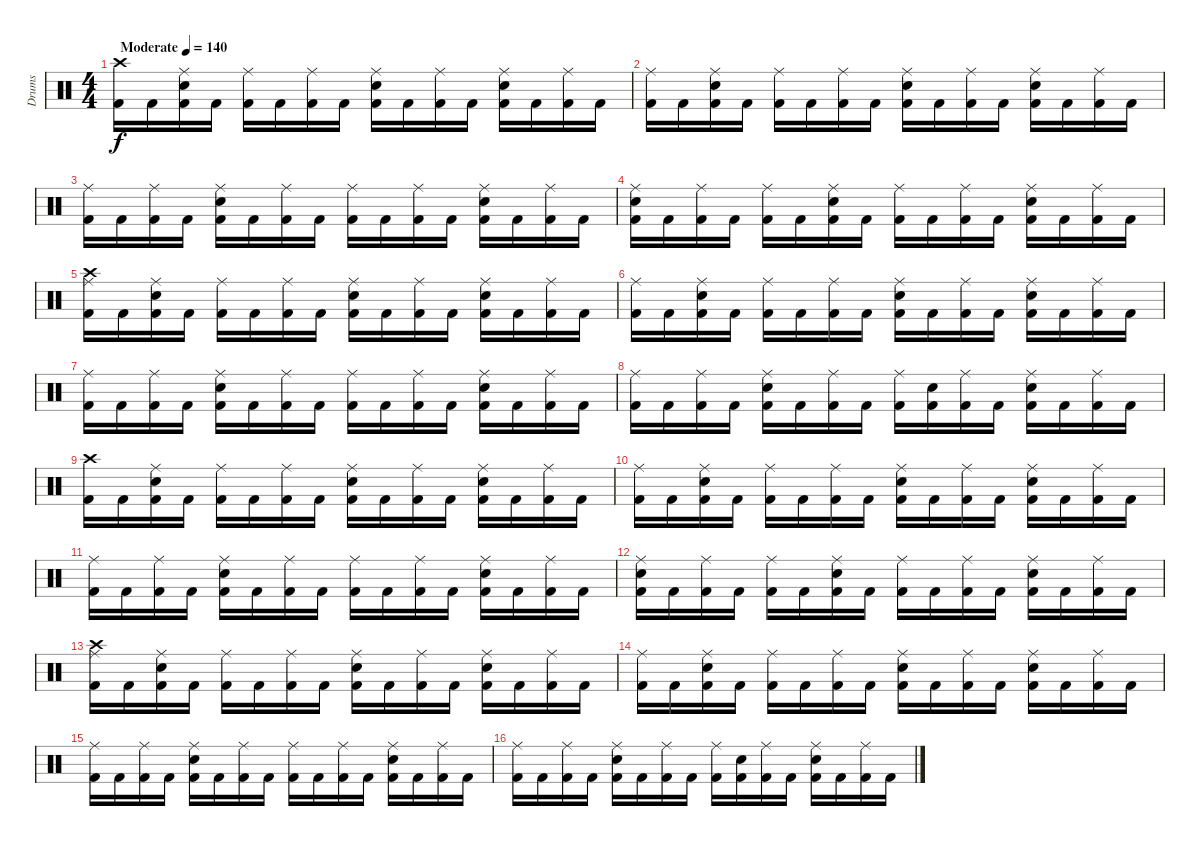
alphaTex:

\track ("Drums" "Drums") {instrument percussion}
\staff {score}
\articulation defaults
\ts (4 4)
\tempo (140 "Moderate")
\clef neutral
\ks c
("Crash high (hit)" "Kick (hit) 2").16{dy f} "Kick (hit) 2".16 ("Ride (middle)" "Electric Snare (hit)" "Kick (hit) 2").16 "Kick (hit) 2".16 ("Ride (middle)" "Kick (hit) 2").16 "Kick (hit) 2".16 ("Ride (middle)" "Kick (hit) 2").16 "Kick (hit) 2".16 ("Ride (middle)" "Electric Snare (hit)" "Kick (hit) 2").16 "Kick (hit) 2".16 ("Ride (middle)" "Kick (hit) 2").16 "Kick (hit) 2".16 ("Ride (middle)" "Electric Snare (hit)" "Kick (hit) 2").16 "Kick (hit) 2".16 ("Ride (middle)" "Kick (hit) 2").16 "Kick (hit) 2".16 |
("Ride (middle)" "Kick (hit) 2").16 "Kick (hit) 2".16 ("Ride (middle)" "Electric Snare (hit)" "Kick (hit) 2").16 "Kick (hit) 2".16 ("Ride (middle)" "Kick (hit) 2").16 "Kick (hit) 2".16 ("Ride (middle)" "Kick (hit) 2").16 "Kick (hit) 2".16 ("Ride (middle)" "Electric Snare (hit)" "Kick (hit) 2").16 "Kick (hit) 2".16 ("Ride (middle)" "Kick (hit) 2").16 "Kick (hit) 2".16 ("Ride (middle)" "Electric Snare (hit)" "Kick (hit) 2").16 "Kick (hit) 2".16 ("Ride (middle)" "Kick (hit) 2").16 "Kick (hit) 2".16 |
("Ride (middle)" "Kick (hit) 2").16 "Kick (hit) 2".16 ("Ride (middle)" "Kick (hit) 2").16 "Kick (hit) 2".16 ("Ride (middle)" "Electric Snare (hit)" "Kick (hit) 2").16 "Kick (hit) 2".16 ("Ride (middle)" "Kick (hit) 2").16 "Kick (hit) 2".16 ("Ride (middle)" "Kick (hit) 2").16 "Kick (hit) 2".16 ("Ride (middle)" "Kick (hit) 2").16 "Kick (hit) 2".16 ("Ride (middle)" "Electric Snare (hit)" "Kick (hit) 2").16 "Kick (hit) 2".16 ("Ride (middle)" "Kick (hit) 2").16 "Kick (hit) 2".16 |
("Ride (middle)" "Electric Snare (hit)" "Kick (hit) 2").16 "Kick (hit) 2".16 ("Ride (middle)" "Kick (hit) 2").16 "Kick (hit) 2".16 ("Ride (middle)" "Kick (hit) 2").16 "Kick (hit) 2".16 ("Ride (middle)" "Electric Snare (hit)" "Kick (hit) 2").16 "Kick (hit) 2".16 ("Ride (middle)" "Kick (hit) 2").16 "Kick (hit) 2".16 ("Ride (middle)" "Kick (hit) 2").16 "Kick (hit) 2".16 ("Ride (middle)" "Electric Snare (hit)" "Kick (hit) 2").16 "Kick (hit) 2".16 ("Ride (middle)" "Kick (hit) 2").16 "Kick (hit) 2".16 |
("Ride (middle)" "Crash high (hit)" "Kick (hit) 2").16 "Kick (hit) 2".16 ("Ride (middle)" "Electric Snare (hit)" "Kick (hit) 2").16 "Kick (hit) 2".16 ("Ride (middle)" "Kick (hit) 2").16 "Kick (hit) 2".16 ("Ride (middle)" "Kick (hit) 2").16 "Kick (hit) 2".16 ("Ride (middle)" "Electric Snare (hit)" "Kick (hit) 2").16 "Kick (hit) 2".16 ("Ride (middle)" "Kick (hit) 2").16 "Kick (hit) 2".16 ("Ride (middle)" "Electric Snare (hit)" "Kick (hit) 2").16 "Kick (hit) 2".16 ("Ride (middle)" "Kick (hit) 2").16 "Kick (hit) 2".16 |
("Ride (middle)" "Kick (hit) 2").16 "Kick (hit) 2".16 ("Ride (middle)" "Electric Snare (hit)" "Kick (hit) 2").16 "Kick (hit) 2".16 ("Ride (middle)" "Kick (hit) 2").16 "Kick (hit) 2".16 ("Ride (middle)" "Kick (hit) 2").16 "Kick (hit) 2".16 ("Ride (middle)" "Electric Snare (hit)" "Kick (hit) 2").16 "Kick (hit) 2".16 ("Ride (middle)" "Kick (hit) 2").16 "Kick (hit) 2".16 ("Ride (middle)" "Electric Snare (hit)" "Kick (hit) 2").16 "Kick (hit) 2".16 ("Ride (middle)" "Kick (hit) 2").16 "Kick (hit) 2".16 |
("Ride (middle)" "Kick (hit) 2").16 "Kick (hit) 2".16 ("Ride (middle)" "Kick (hit) 2").16 "Kick (hit) 2".16 ("Ride (middle)" "Electric Snare (hit)" "Kick (hit) 2").16 "Kick (hit) 2".16 ("Ride (middle)" "Kick (hit) 2").16 "Kick (hit) 2".16 ("Ride (middle)" "Kick (hit) 2").16 "Kick (hit) 2".16 ("Ride (middle)" "Kick (hit) 2").16 "Kick (hit) 2".16 ("Ride (middle)" "Electric Snare (hit)" "Kick (hit) 2").16 "Kick (hit) 2".16 ("Ride (middle)" "Kick (hit) 2").16 "Kick (hit) 2".16 |
("Ride (middle)" "Kick (hit) 2").16 "Kick (hit) 2".16 ("Ride (middle)" "Kick (hit) 2").16 "Kick (hit) 2".16 ("Ride (middle)" "Electric Snare (hit)" "Kick (hit) 2").16 "Kick (hit) 2".16 ("Ride (middle)" "Kick (hit) 2").16 "Kick (hit) 2".16 ("Ride (middle)" "Kick (hit) 2").16 ("Electric Snare (hit)" "Kick (hit) 2").16 ("Ride (middle)" "Kick (hit) 2").16 "Kick (hit) 2".16 ("Ride (middle)" "Electric Snare (hit)" "Kick (hit) 2").16 "Kick (hit) 2".16 ("Ride (middle)" "Kick (hit) 2").16 "Kick (hit) 2".16 |
("Crash high (hit)" "Kick (hit) 2").16 "Kick (hit) 2".16 ("Ride (middle)" "Electric Snare (hit)" "Kick (hit) 2").16 "Kick (hit) 2".16 ("Ride (middle)" "Kick (hit) 2").16 "Kick (hit) 2".16 ("Ride (middle)" "Kick (hit) 2").16 "Kick (hit) 2".16 ("Ride (middle)" "Electric Snare (hit)" "Kick (hit) 2").16 "Kick (hit) 2".16 ("Ride (middle)" "Kick (hit) 2").16 "Kick (hit) 2".16 ("Ride (middle)" "Electric Snare (hit)" "Kick (hit) 2").16 "Kick (hit) 2".16 ("Ride (middle)" "Kick (hit) 2").16 "Kick (hit) 2".16 |
("Ride (middle)" "Kick (hit) 2").16 "Kick (hit) 2".16 ("Ride (middle)" "Electric Snare (hit)" "Kick (hit) 2").16 "Kick (hit) 2".16 ("Ride (middle)" "Kick (hit) 2").16 "Kick (hit) 2".16 ("Ride (middle)" "Kick (hit) 2").16 "Kick (hit) 2".16 ("Ride (middle)" "Electric Snare (hit)" "Kick (hit) 2").16 "Kick (hit) 2".16 ("Ride (middle)" "Kick (hit) 2").16 "Kick (hit) 2".16 ("Ride (middle)" "Electric Snare (hit)" "Kick (hit) 2").16 "Kick (hit) 2".16 ("Ride (middle)" "Kick (hit) 2").16 "Kick (hit) 2".16 |
("Ride (middle)" "Kick (hit) 2").16 "Kick (hit) 2".16 ("Ride (middle)" "Kick (hit) 2").16 "Kick (hit) 2".16 ("Ride (middle)" "Electric Snare (hit)" "Kick (hit) 2").16 "Kick (hit) 2".16 ("Ride (middle)" "Kick (hit) 2").16 "Kick (hit) 2".16 ("Ride (middle)" "Kick (hit) 2").16 "Kick (hit) 2".16 ("Ride (middle)" "Kick (hit) 2").16 "Kick (hit) 2".16 ("Ride (middle)" "Electric Snare (hit)" "Kick (hit) 2").16 "Kick (hit) 2".16 ("Ride (middle)" "Kick (hit) 2").16 "Kick (hit) 2".16 |
("Ride (middle)" "Electric Snare (hit)" "Kick (hit) 2").16 "Kick (hit) 2".16 ("Ride (middle)" "Kick (hit) 2").16 "Kick (hit) 2".16 ("Ride (middle)" "Kick (hit) 2").16 "Kick (hit) 2".16 ("Ride (middle)" "Electric Snare (hit)" "Kick (hit) 2").16 "Kick (hit) 2".16 ("Ride (middle)" "Kick (hit) 2").16 "Kick (hit) 2".16 ("Ride (middle)" "Kick (hit) 2").16 "Kick (hit) 2".16 ("Ride (middle)" "Electric Snare (hit)" "Kick (hit) 2").16 "Kick (hit) 2".16 ("Ride (middle)" "Kick (hit) 2").16 "Kick (hit) 2".16 |
("Ride (middle)" "Crash high (hit)" "Kick (hit) 2").16 "Kick (hit) 2".16 ("Ride (middle)" "Electric Snare (hit)" "Kick (hit) 2").16 "Kick (hit) 2".16 ("Ride (middle)" "Kick (hit) 2").16 "Kick (hit) 2".16 ("Ride (middle)" "Kick (hit) 2").16 "Kick (hit) 2".16 ("Ride (middle)" "Electric Snare (hit)" "Kick (hit) 2").16 "Kick (hit) 2".16 ("Ride (middle)" "Kick (hit) 2").16 "Kick (hit) 2".16 ("Ride (middle)" "Electric Snare (hit)" "Kick (hit) 2").16 "Kick (hit) 2".16 ("Ride (middle)" "Kick (hit) 2").16 "Kick (hit) 2".16 |
("Ride (middle)" "Kick (hit) 2").16 "Kick (hit) 2".16 ("Ride (middle)" "Electric Snare (hit)" "Kick (hit) 2").16 "Kick (hit) 2".16 ("Ride (middle)" "Kick (hit) 2").16 "Kick (hit) 2".16 ("Ride (middle)" "Kick (hit) 2").16 "Kick (hit) 2".16 ("Ride (middle)" "Electric Snare (hit)" "Kick (hit) 2").16 "Kick (hit) 2".16 ("Ride (middle)" "Kick (hit) 2").16 "Kick (hit) 2".16 ("Ride (middle)" "Electric Snare (hit)" "Kick (hit) 2").16 "Kick (hit) 2".16 ("Ride (middle)" "Kick (hit) 2").16 "Kick (hit) 2".16 |
("Ride (middle)" "Kick (hit) 2").16 "Kick (hit) 2".16 ("Ride (middle)" "Kick (hit) 2").16 "Kick (hit) 2".16 ("Ride (middle)" "Electric Snare (hit)" "Kick (hit) 2").16 "Kick (hit) 2".16 ("Ride (middle)" "Kick (hit) 2").16 "Kick (hit) 2".16 ("Ride (middle)" "Kick (hit) 2").16 "Kick (hit) 2".16 ("Ride (middle)" "Kick (hit) 2").16 "Kick (hit) 2".16 ("Ride (middle)" "Electric Snare (hit)" "Kick (hit) 2").16 "Kick (hit) 2".16 ("Ride (middle)" "Kick (hit) 2").16 "Kick (hit) 2".16 |
("Ride (middle)" "Kick (hit) 2").16 "Kick (hit) 2".16 ("Ride (middle)" "Kick (hit) 2").16 "Kick (hit) 2".16 ("Ride (middle)" "Electric Snare (hit)" "Kick (hit) 2").16 "Kick (hit) 2".16 ("Ride (middle)" "Kick (hit) 2").16 "Kick (hit) 2".16 ("Ride (middle)" "Kick (hit) 2").16 ("Electric Snare (hit)" "Kick (hit) 2").16 ("Ride (middle)" "Kick (hit) 2").16 "Kick (hit) 2".16 ("Ride (middle)" "Electric Snare (hit)" "Kick (hit) 2").16 "Kick (hit) 2".16 ("Ride (middle)" "Kick (hit) 2").16 "Kick (hit) 2".16
